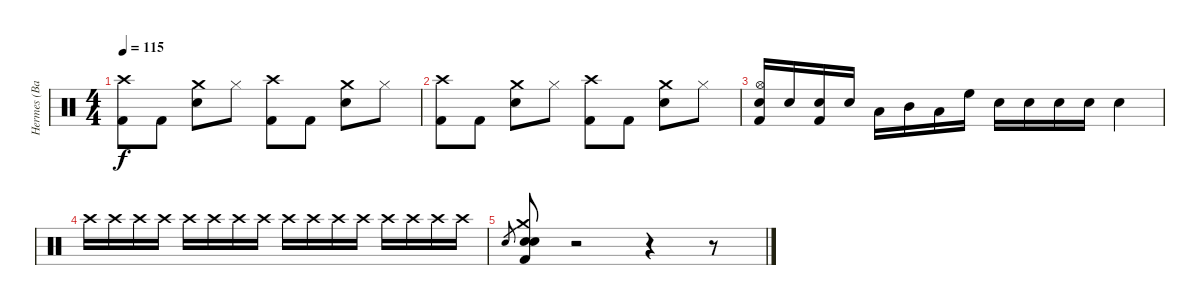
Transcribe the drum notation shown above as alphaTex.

\track ("Hermes (Bateria)" "Hermes (Ba") {instrument percussion}
\staff {score}
\articulation defaults
\ts (4 4)
\tempo 115
\clef neutral
\ks c
("Crash high (hit)" "Kick (hit) 2").8{dy f} "Kick (hit) 2".8 ("Crash medium (hit)" "Snare (hit) 2").8 "Hi-Hat (closed)".8 ("Crash high (hit)" "Kick (hit) 2").8 "Kick (hit) 2".8 ("Crash medium (hit)" "Snare (hit) 2").8 "Hi-Hat (closed)".8 |
("Crash high (hit)" "Kick (hit) 2").8 "Kick (hit) 2".8 ("Crash medium (hit)" "Snare (hit) 2").8 "Hi-Hat (closed)".8 ("Crash high (hit)" "Kick (hit) 2").8 "Kick (hit) 2".8 ("Crash medium (hit)" "Snare (hit) 2").8 "Hi-Hat (closed)".8 |
("Hi-Hat (open)" "Electric Snare (hit)" "Kick (hit) 2").16 "Electric Snare (hit)".16 ("Electric Snare (hit)" "Kick (hit) 2").16 "Electric Snare (hit)".16 "Low Tom (hit)".16 "Mid Tom (hit)".16 "Low Tom (hit)".16 "High Floor Tom (hit)".16 "Snare (hit) 2".16 "Snare (hit) 2".16 "Snare (hit) 2".16 "Snare (hit) 2".16 "Snare (hit) 2".4 |
"Crash high (hit)".16 "Crash high (hit)".16 "Crash high (hit)".16 "Crash high (hit)".16 "Crash high (hit)".16 "Crash high (hit)".16 "Crash high (hit)".16 "Crash high (hit)".16 "Crash high (hit)".16 "Crash high (hit)".16 "Crash high (hit)".16 "Crash high (hit)".16 "Crash high (hit)".16 "Crash high (hit)".16 "Crash high (hit)".16 "Crash high (hit)".16 |
"Snare (hit) 2".8{gr} ("Crash medium (hit)" "Snare (hit) 2" "Snare (hit) 2" "Kick (hit) 2").8 r.2 r.4 r.8
